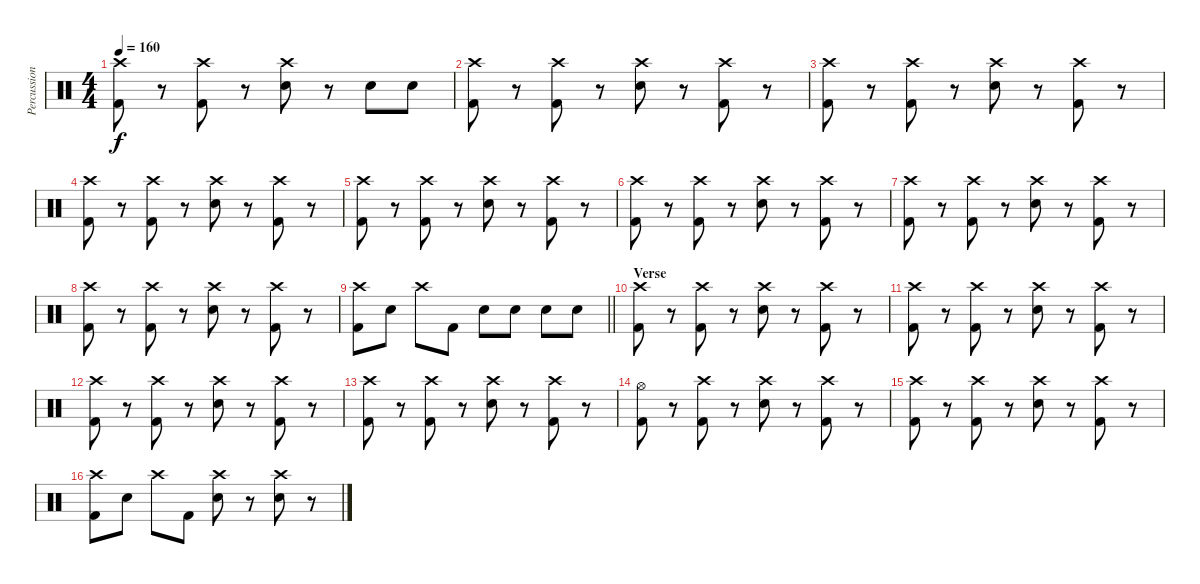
\track ("Percussion" "Percussion") {instrument percussion}
\staff {score}
\articulation defaults
\ts (4 4)
\tempo 160
\clef neutral
\ks c
("Crash high (hit)" "Kick (hit) 2").8{dy f} r.8 ("Crash high (hit)" "Kick (hit) 2").8 r.8 ("Crash high (hit)" "Electric Snare (hit)").8 r.8 "Electric Snare (hit)".8 "Electric Snare (hit)".8 |
("Crash high (hit)" "Kick (hit) 2").8 r.8 ("Crash high (hit)" "Kick (hit) 2").8 r.8 ("Crash high (hit)" "Electric Snare (hit)").8 r.8 ("Crash high (hit)" "Kick (hit) 2").8 r.8 |
("Crash high (hit)" "Kick (hit) 2").8 r.8 ("Crash high (hit)" "Kick (hit) 2").8 r.8 ("Crash high (hit)" "Electric Snare (hit)").8 r.8 ("Crash high (hit)" "Kick (hit) 2").8 r.8 |
("Crash high (hit)" "Kick (hit) 2").8 r.8 ("Crash high (hit)" "Kick (hit) 2").8 r.8 ("Crash high (hit)" "Electric Snare (hit)").8 r.8 ("Crash high (hit)" "Kick (hit) 2").8 r.8 |
("Crash high (hit)" "Kick (hit) 2").8 r.8 ("Crash high (hit)" "Kick (hit) 2").8 r.8 ("Crash high (hit)" "Electric Snare (hit)").8 r.8 ("Crash high (hit)" "Kick (hit) 2").8 r.8 |
("Crash high (hit)" "Kick (hit) 2").8 r.8 ("Crash high (hit)" "Kick (hit) 2").8 r.8 ("Crash high (hit)" "Electric Snare (hit)").8 r.8 ("Crash high (hit)" "Kick (hit) 2").8 r.8 |
("Crash high (hit)" "Kick (hit) 2").8 r.8 ("Crash high (hit)" "Kick (hit) 2").8 r.8 ("Crash high (hit)" "Electric Snare (hit)").8 r.8 ("Crash high (hit)" "Kick (hit) 2").8 r.8 |
("Crash high (hit)" "Kick (hit) 2").8 r.8 ("Crash high (hit)" "Kick (hit) 2").8 r.8 ("Crash high (hit)" "Electric Snare (hit)").8 r.8 ("Crash high (hit)" "Kick (hit) 2").8 r.8 |
\barLineRight lightlight
("Crash high (hit)" "Kick (hit) 2").8 "Electric Snare (hit)".8 "Crash high (hit)".8 "Kick (hit) 2".8 "Electric Snare (hit)".8 "Electric Snare (hit)".8 "Electric Snare (hit)".8 "Electric Snare (hit)".8 |
\section ("" "Verse")
("Crash high (hit)" "Kick (hit) 2").8 r.8 ("Crash high (hit)" "Kick (hit) 2").8 r.8 ("Crash high (hit)" "Electric Snare (hit)").8 r.8 ("Crash high (hit)" "Kick (hit) 2").8 r.8 |
("Crash high (hit)" "Kick (hit) 2").8 r.8 ("Crash high (hit)" "Kick (hit) 2").8 r.8 ("Crash high (hit)" "Electric Snare (hit)").8 r.8 ("Crash high (hit)" "Kick (hit) 2").8 r.8 |
("Crash high (hit)" "Kick (hit) 2").8 r.8 ("Crash high (hit)" "Kick (hit) 2").8 r.8 ("Crash high (hit)" "Electric Snare (hit)").8 r.8 ("Crash high (hit)" "Kick (hit) 2").8 r.8 |
("Crash high (hit)" "Kick (hit) 2").8 r.8 ("Crash high (hit)" "Kick (hit) 2").8 r.8 ("Crash high (hit)" "Electric Snare (hit)").8 r.8 ("Crash high (hit)" "Kick (hit) 2").8 r.8 |
("Hi-Hat (open)" "Kick (hit) 2").8 r.8 ("Crash high (hit)" "Kick (hit) 2").8 r.8 ("Crash high (hit)" "Electric Snare (hit)").8 r.8 ("Crash high (hit)" "Kick (hit) 2").8 r.8 |
("Crash high (hit)" "Kick (hit) 2").8 r.8 ("Crash high (hit)" "Kick (hit) 2").8 r.8 ("Crash high (hit)" "Electric Snare (hit)").8 r.8 ("Crash high (hit)" "Kick (hit) 2").8 r.8 |
("Crash high (hit)" "Kick (hit) 2").8 "Electric Snare (hit)".8 "Crash high (hit)".8 "Kick (hit) 2".8 ("Crash high (hit)" "Electric Snare (hit)").8 r.8 ("Crash high (hit)" "Electric Snare (hit)").8 r.8
